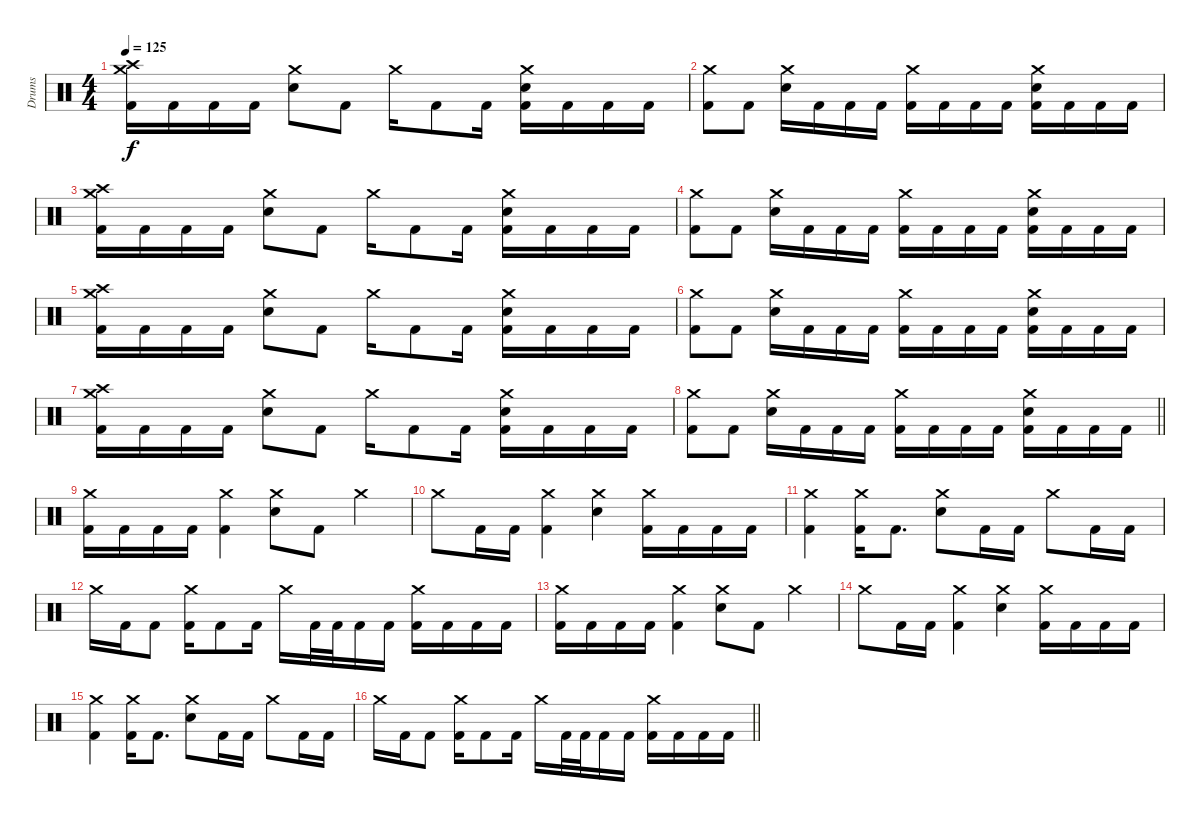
\track ("Drums" "Drums") {instrument percussion}
\staff {score}
\articulation defaults
\ts (4 4)
\section ("" "")
\tempo 125
\clef neutral
\ks c
("Crash medium (hit)" "Crash high (hit)" "Kick (hit) 2").16{dy f} "Kick (hit) 2".16 "Kick (hit) 2".16 "Kick (hit) 2".16 ("Crash medium (hit)" "Snare (hit) 2").8 "Kick (hit) 2".8 "Crash medium (hit)".16 "Kick (hit) 2".8 "Kick (hit) 2".16 ("Crash medium (hit)" "Snare (hit) 2" "Kick (hit) 2").16 "Kick (hit) 2".16 "Kick (hit) 2".16 "Kick (hit) 2".16 |
("Crash medium (hit)" "Kick (hit) 2").8 "Kick (hit) 2".8 ("Crash medium (hit)" "Snare (hit) 2").16 "Kick (hit) 2".16 "Kick (hit) 2".16 "Kick (hit) 2".16 ("Crash medium (hit)" "Kick (hit) 2").16 "Kick (hit) 2".16 "Kick (hit) 2".16 "Kick (hit) 2".16 ("Crash medium (hit)" "Snare (hit) 2" "Kick (hit) 2").16 "Kick (hit) 2".16 "Kick (hit) 2".16 "Kick (hit) 2".16 |
("Crash medium (hit)" "Crash high (hit)" "Kick (hit) 2").16 "Kick (hit) 2".16 "Kick (hit) 2".16 "Kick (hit) 2".16 ("Crash medium (hit)" "Snare (hit) 2").8 "Kick (hit) 2".8 "Crash medium (hit)".16 "Kick (hit) 2".8 "Kick (hit) 2".16 ("Crash medium (hit)" "Snare (hit) 2" "Kick (hit) 2").16 "Kick (hit) 2".16 "Kick (hit) 2".16 "Kick (hit) 2".16 |
("Crash medium (hit)" "Kick (hit) 2").8 "Kick (hit) 2".8 ("Crash medium (hit)" "Snare (hit) 2").16 "Kick (hit) 2".16 "Kick (hit) 2".16 "Kick (hit) 2".16 ("Crash medium (hit)" "Kick (hit) 2").16 "Kick (hit) 2".16 "Kick (hit) 2".16 "Kick (hit) 2".16 ("Crash medium (hit)" "Snare (hit) 2" "Kick (hit) 2").16 "Kick (hit) 2".16 "Kick (hit) 2".16 "Kick (hit) 2".16 |
("Crash medium (hit)" "Crash high (hit)" "Kick (hit) 2").16 "Kick (hit) 2".16 "Kick (hit) 2".16 "Kick (hit) 2".16 ("Crash medium (hit)" "Snare (hit) 2").8 "Kick (hit) 2".8 "Crash medium (hit)".16 "Kick (hit) 2".8 "Kick (hit) 2".16 ("Crash medium (hit)" "Snare (hit) 2" "Kick (hit) 2").16 "Kick (hit) 2".16 "Kick (hit) 2".16 "Kick (hit) 2".16 |
("Crash medium (hit)" "Kick (hit) 2").8 "Kick (hit) 2".8 ("Crash medium (hit)" "Snare (hit) 2").16 "Kick (hit) 2".16 "Kick (hit) 2".16 "Kick (hit) 2".16 ("Crash medium (hit)" "Kick (hit) 2").16 "Kick (hit) 2".16 "Kick (hit) 2".16 "Kick (hit) 2".16 ("Crash medium (hit)" "Snare (hit) 2" "Kick (hit) 2").16 "Kick (hit) 2".16 "Kick (hit) 2".16 "Kick (hit) 2".16 |
("Crash medium (hit)" "Crash high (hit)" "Kick (hit) 2").16 "Kick (hit) 2".16 "Kick (hit) 2".16 "Kick (hit) 2".16 ("Crash medium (hit)" "Snare (hit) 2").8 "Kick (hit) 2".8 "Crash medium (hit)".16 "Kick (hit) 2".8 "Kick (hit) 2".16 ("Crash medium (hit)" "Snare (hit) 2" "Kick (hit) 2").16 "Kick (hit) 2".16 "Kick (hit) 2".16 "Kick (hit) 2".16 |
\barLineRight lightlight
("Crash medium (hit)" "Kick (hit) 2").8 "Kick (hit) 2".8 ("Crash medium (hit)" "Snare (hit) 2").16 "Kick (hit) 2".16 "Kick (hit) 2".16 "Kick (hit) 2".16 ("Crash medium (hit)" "Kick (hit) 2").16 "Kick (hit) 2".16 "Kick (hit) 2".16 "Kick (hit) 2".16 ("Crash medium (hit)" "Snare (hit) 2" "Kick (hit) 2").16 "Kick (hit) 2".16 "Kick (hit) 2".16 "Kick (hit) 2".16 |
\section ("" "")
("Crash medium (hit)" "Kick (hit) 2").16 "Kick (hit) 2".16 "Kick (hit) 2".16 "Kick (hit) 2".16 ("Crash medium (hit)" "Kick (hit) 2").4 ("Crash medium (hit)" "Snare (hit) 2").8 "Kick (hit) 2".8 "Crash medium (hit)".4 |
"Crash medium (hit)".8 "Kick (hit) 2".16 "Kick (hit) 2".16 ("Crash medium (hit)" "Kick (hit) 2").4 ("Crash medium (hit)" "Snare (hit) 2").4 ("Crash medium (hit)" "Kick (hit) 2").16 "Kick (hit) 2".16 "Kick (hit) 2".16 "Kick (hit) 2".16 |
("Crash medium (hit)" "Kick (hit) 2").4 ("Crash medium (hit)" "Kick (hit) 2").16 "Kick (hit) 2".8{d} ("Crash medium (hit)" "Snare (hit) 2").8 "Kick (hit) 2".16 "Kick (hit) 2".16 "Crash medium (hit)".8 "Kick (hit) 2".16 "Kick (hit) 2".16 |
"Crash medium (hit)".16 "Kick (hit) 2".16 "Kick (hit) 2".8 ("Crash medium (hit)" "Kick (hit) 2").16 "Kick (hit) 2".8 "Kick (hit) 2".16 "Crash medium (hit)".16 "Kick (hit) 2".32 "Kick (hit) 2".32 "Kick (hit) 2".16 "Kick (hit) 2".16 ("Crash medium (hit)" "Kick (hit) 2").16 "Kick (hit) 2".16 "Kick (hit) 2".16 "Kick (hit) 2".16 |
("Crash medium (hit)" "Kick (hit) 2").16 "Kick (hit) 2".16 "Kick (hit) 2".16 "Kick (hit) 2".16 ("Crash medium (hit)" "Kick (hit) 2").4 ("Crash medium (hit)" "Snare (hit) 2").8 "Kick (hit) 2".8 "Crash medium (hit)".4 |
"Crash medium (hit)".8 "Kick (hit) 2".16 "Kick (hit) 2".16 ("Crash medium (hit)" "Kick (hit) 2").4 ("Crash medium (hit)" "Snare (hit) 2").4 ("Crash medium (hit)" "Kick (hit) 2").16 "Kick (hit) 2".16 "Kick (hit) 2".16 "Kick (hit) 2".16 |
("Crash medium (hit)" "Kick (hit) 2").4 ("Crash medium (hit)" "Kick (hit) 2").16 "Kick (hit) 2".8{d} ("Crash medium (hit)" "Snare (hit) 2").8 "Kick (hit) 2".16 "Kick (hit) 2".16 "Crash medium (hit)".8 "Kick (hit) 2".16 "Kick (hit) 2".16 |
\barLineRight lightlight "Crash medium (hit)".16 "Kick (hit) 2".16 "Kick (hit) 2".8
("Crash medium (hit)" "Kick (hit) 2").16 "Kick (hit) 2".8 "Kick (hit) 2".16 "Crash medium (hit)".16 "Kick (hit) 2".32 "Kick (hit) 2".32 "Kick (hit) 2".16 "Kick (hit) 2".16 ("Crash medium (hit)" "Kick (hit) 2").16 "Kick (hit) 2".16 "Kick (hit) 2".16 "Kick (hit) 2".16
